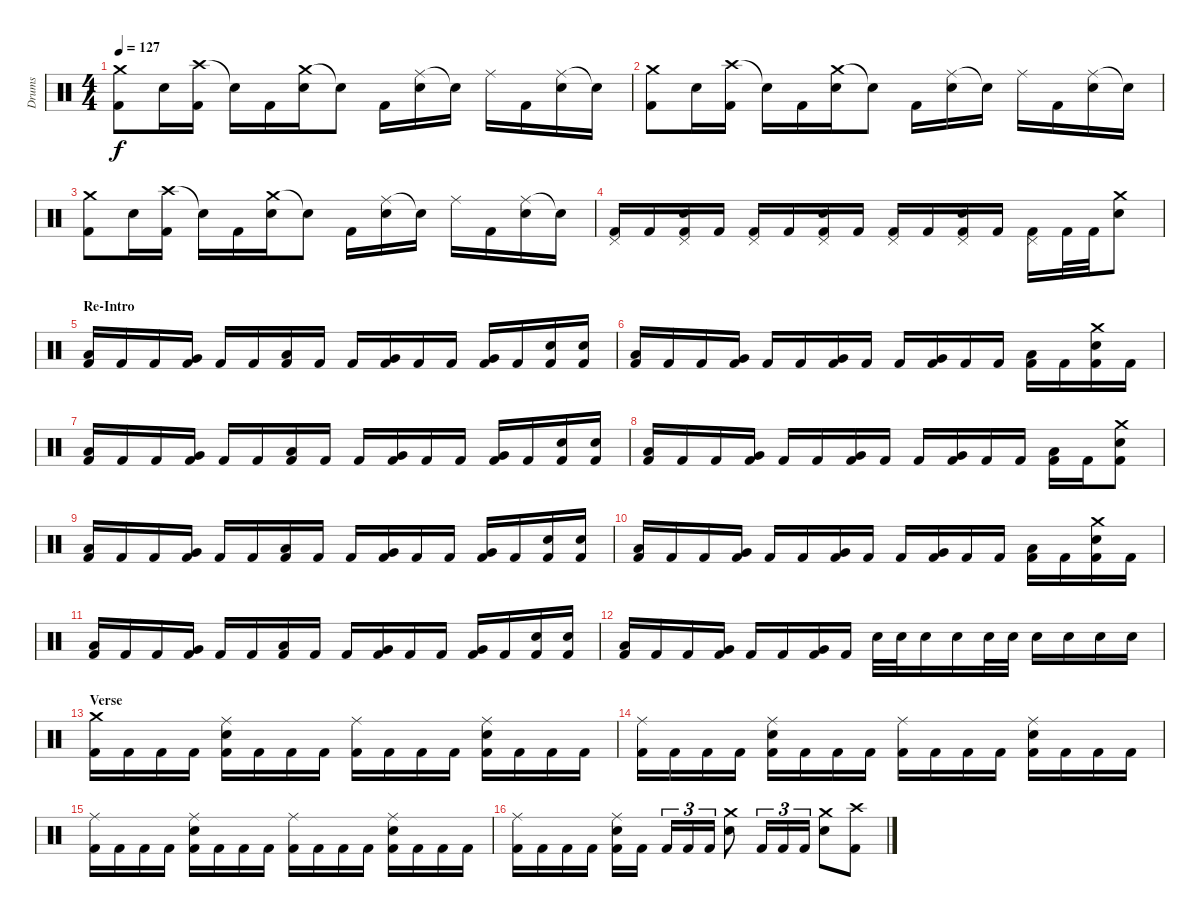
\track ("Drums" "Drums") {instrument percussion}
\staff {score}
\articulation defaults
\ts (4 4)
\tempo 127
\clef neutral
\ks c
("Crash medium (hit)" "Kick (hit) 2").8{dy f} "Electric Snare (hit)".16 ("Crash high (hit)" "Kick (hit) 2").16 "Snare (hit)"{t}.16 "Kick (hit) 2".16 ("Crash medium (hit)" "Electric Snare (hit)").16 "Snare (hit)"{t}.8 "Kick (hit) 2".16 ("Ride (middle)" "Electric Snare (hit)").16 "Snare (hit)"{t}.16 "Ride (middle)".16 "Kick (hit) 2".16 ("Ride (middle)" "Electric Snare (hit)").16 "Snare (hit)"{t}.16 |
("Crash medium (hit)" "Kick (hit) 2").8 "Electric Snare (hit)".16 ("Crash high (hit)" "Kick (hit) 2").16 "Snare (hit)"{t}.16 "Kick (hit) 2".16 ("Crash medium (hit)" "Electric Snare (hit)").16 "Snare (hit)"{t}.8 "Kick (hit) 2".16 ("Ride (middle)" "Electric Snare (hit)").16 "Snare (hit)"{t}.16 "Ride (middle)".16 "Kick (hit) 2".16 ("Ride (middle)" "Electric Snare (hit)").16 "Snare (hit)"{t}.16 |
("Crash medium (hit)" "Kick (hit) 2").8 "Electric Snare (hit)".16 ("Crash high (hit)" "Kick (hit) 2").16 "Snare (hit)"{t}.16 "Kick (hit) 2".16 ("Crash medium (hit)" "Electric Snare (hit)").16 "Snare (hit)"{t}.8 "Kick (hit) 2".16 ("Ride (middle)" "Electric Snare (hit)").16 "Snare (hit)"{t}.16 "Ride (middle)".16 "Kick (hit) 2".16 ("Ride (middle)" "Electric Snare (hit)").16 "Snare (hit)"{t}.16 |
("Pedal Hi-Hat (hit)" "Kick (hit) 2").16 "Kick (hit) 2".16 ("Pedal Hi-Hat (hit)" "Electric Snare (hit)" "Kick (hit) 2").16 "Kick (hit) 2".16 ("Pedal Hi-Hat (hit)" "Kick (hit) 2").16 "Kick (hit) 2".16 ("Pedal Hi-Hat (hit)" "Electric Snare (hit)" "Kick (hit) 2").16 "Kick (hit) 2".16 ("Pedal Hi-Hat (hit)" "Kick (hit) 2").16 "Kick (hit) 2".16 ("Pedal Hi-Hat (hit)" "Electric Snare (hit)" "Kick (hit) 2").16 "Kick (hit) 2".16 ("Pedal Hi-Hat (hit)" "Kick (hit) 2").16 "Kick (hit) 2".32 "Kick (hit) 2".32 ("Crash medium (hit)" "Electric Snare (hit)").8 |
\section ("" "Re-Intro")
("Low Tom (hit)" "Kick (hit) 2").16 "Kick (hit) 2".16 "Kick (hit) 2".16 ("Very Low Tom (hit)" "Kick (hit) 2").16 "Kick (hit) 2".16 "Kick (hit) 2".16 ("Low Tom (hit)" "Kick (hit) 2").16 "Kick (hit) 2".16 "Kick (hit) 2".16 ("Very Low Tom (hit)" "Kick (hit) 2").16 "Kick (hit) 2".16 "Kick (hit) 2".16 ("Very Low Tom (hit)" "Kick (hit) 2").16 "Kick (hit) 2".16 ("Electric Snare (hit)" "Kick (hit) 2").16 ("Electric Snare (hit)" "Kick (hit) 2").16 |
("Low Tom (hit)" "Kick (hit) 2").16 "Kick (hit) 2".16 "Kick (hit) 2".16 ("Very Low Tom (hit)" "Kick (hit) 2").16 "Kick (hit) 2".16 "Kick (hit) 2".16 ("Very Low Tom (hit)" "Kick (hit) 2").16 "Kick (hit) 2".16 "Kick (hit) 2".16 ("Very Low Tom (hit)" "Kick (hit) 2").16 "Kick (hit) 2".16 "Kick (hit) 2".16 ("Low Tom (hit)" "Kick (hit) 2").16 "Kick (hit) 2".16 ("Crash medium (hit)" "Electric Snare (hit)" "Kick (hit) 2").16 "Kick (hit) 2".16 |
("Low Tom (hit)" "Kick (hit) 2").16 "Kick (hit) 2".16 "Kick (hit) 2".16 ("Very Low Tom (hit)" "Kick (hit) 2").16 "Kick (hit) 2".16 "Kick (hit) 2".16 ("Low Tom (hit)" "Kick (hit) 2").16 "Kick (hit) 2".16 "Kick (hit) 2".16 ("Very Low Tom (hit)" "Kick (hit) 2").16 "Kick (hit) 2".16 "Kick (hit) 2".16 ("Very Low Tom (hit)" "Kick (hit) 2").16 "Kick (hit) 2".16 ("Electric Snare (hit)" "Kick (hit) 2").16 ("Electric Snare (hit)" "Kick (hit) 2").16 |
("Low Tom (hit)" "Kick (hit) 2").16 "Kick (hit) 2".16 "Kick (hit) 2".16 ("Very Low Tom (hit)" "Kick (hit) 2").16 "Kick (hit) 2".16 "Kick (hit) 2".16 ("Very Low Tom (hit)" "Kick (hit) 2").16 "Kick (hit) 2".16 "Kick (hit) 2".16 ("Very Low Tom (hit)" "Kick (hit) 2").16 "Kick (hit) 2".16 "Kick (hit) 2".16 ("Low Tom (hit)" "Kick (hit) 2").16 "Kick (hit) 2".16 ("Crash medium (hit)" "Electric Snare (hit)" "Kick (hit) 2").8 |
("Low Tom (hit)" "Kick (hit) 2").16 "Kick (hit) 2".16 "Kick (hit) 2".16 ("Very Low Tom (hit)" "Kick (hit) 2").16 "Kick (hit) 2".16 "Kick (hit) 2".16 ("Low Tom (hit)" "Kick (hit) 2").16 "Kick (hit) 2".16 "Kick (hit) 2".16 ("Very Low Tom (hit)" "Kick (hit) 2").16 "Kick (hit) 2".16 "Kick (hit) 2".16 ("Very Low Tom (hit)" "Kick (hit) 2").16 "Kick (hit) 2".16 ("Electric Snare (hit)" "Kick (hit) 2").16 ("Electric Snare (hit)" "Kick (hit) 2").16 |
("Low Tom (hit)" "Kick (hit) 2").16 "Kick (hit) 2".16 "Kick (hit) 2".16 ("Very Low Tom (hit)" "Kick (hit) 2").16 "Kick (hit) 2".16 "Kick (hit) 2".16 ("Very Low Tom (hit)" "Kick (hit) 2").16 "Kick (hit) 2".16 "Kick (hit) 2".16 ("Very Low Tom (hit)" "Kick (hit) 2").16 "Kick (hit) 2".16 "Kick (hit) 2".16 ("Low Tom (hit)" "Kick (hit) 2").16 "Kick (hit) 2".16 ("Crash medium (hit)" "Electric Snare (hit)" "Kick (hit) 2").16 "Kick (hit) 2".16 |
("Low Tom (hit)" "Kick (hit) 2").16 "Kick (hit) 2".16 "Kick (hit) 2".16 ("Very Low Tom (hit)" "Kick (hit) 2").16 "Kick (hit) 2".16 "Kick (hit) 2".16 ("Low Tom (hit)" "Kick (hit) 2").16 "Kick (hit) 2".16 "Kick (hit) 2".16 ("Very Low Tom (hit)" "Kick (hit) 2").16 "Kick (hit) 2".16 "Kick (hit) 2".16 ("Very Low Tom (hit)" "Kick (hit) 2").16 "Kick (hit) 2".16 ("Electric Snare (hit)" "Kick (hit) 2").16 ("Electric Snare (hit)" "Kick (hit) 2").16 |
("Low Tom (hit)" "Kick (hit) 2").16 "Kick (hit) 2".16 "Kick (hit) 2".16 ("Very Low Tom (hit)" "Kick (hit) 2").16 "Kick (hit) 2".16 "Kick (hit) 2".16 ("Very Low Tom (hit)" "Kick (hit) 2").16 "Kick (hit) 2".16 "Electric Snare (hit)".32 "Electric Snare (hit)".32 "Electric Snare (hit)".16 "Electric Snare (hit)".16 "Electric Snare (hit)".32 "Electric Snare (hit)".32 "Electric Snare (hit)".16 "Electric Snare (hit)".16 "Electric Snare (hit)".16 "Electric Snare (hit)".16 |
\section ("" "Verse")
("Crash medium (hit)" "Kick (hit) 2").16 "Kick (hit) 2".16 "Kick (hit) 2".16 "Kick (hit) 2".16 ("Ride (middle)" "Electric Snare (hit)" "Kick (hit) 2").16 "Kick (hit) 2".16 "Kick (hit) 2".16 "Kick (hit) 2".16 ("Ride (middle)" "Kick (hit) 2").16 "Kick (hit) 2".16 "Kick (hit) 2".16 "Kick (hit) 2".16 ("Ride (middle)" "Electric Snare (hit)" "Kick (hit) 2").16 "Kick (hit) 2".16 "Kick (hit) 2".16 "Kick (hit) 2".16 |
("Ride (middle)" "Kick (hit) 2").16 "Kick (hit) 2".16 "Kick (hit) 2".16 "Kick (hit) 2".16 ("Ride (middle)" "Electric Snare (hit)" "Kick (hit) 2").16 "Kick (hit) 2".16 "Kick (hit) 2".16 "Kick (hit) 2".16 ("Ride (middle)" "Kick (hit) 2").16 "Kick (hit) 2".16 "Kick (hit) 2".16 "Kick (hit) 2".16 ("Ride (middle)" "Electric Snare (hit)" "Kick (hit) 2").16 "Kick (hit) 2".16 "Kick (hit) 2".16 "Kick (hit) 2".16 |
("Ride (middle)" "Kick (hit) 2").16 "Kick (hit) 2".16 "Kick (hit) 2".16 "Kick (hit) 2".16 ("Ride (middle)" "Electric Snare (hit)" "Kick (hit) 2").16 "Kick (hit) 2".16 "Kick (hit) 2".16 "Kick (hit) 2".16 ("Ride (middle)" "Kick (hit) 2").16 "Kick (hit) 2".16 "Kick (hit) 2".16 "Kick (hit) 2".16 ("Ride (middle)" "Electric Snare (hit)" "Kick (hit) 2").16 "Kick (hit) 2".16 "Kick (hit) 2".16 "Kick (hit) 2".16 |
("Ride (middle)" "Kick (hit) 2").16 "Kick (hit) 2".16 "Kick (hit) 2".16 "Kick (hit) 2".16 ("Ride (middle)" "Electric Snare (hit)" "Kick (hit) 2").16 "Kick (hit) 2".16 "Kick (hit) 2".16{tu (3 2)} "Kick (hit) 2".16{tu (3 2)} "Kick (hit) 2".16{tu (3 2)} ("Crash medium (hit)" "Electric Snare (hit)").8 "Kick (hit) 2".16{tu (3 2)} "Kick (hit) 2".16{tu (3 2)} "Kick (hit) 2".16{tu (3 2)} ("Crash medium (hit)" "Electric Snare (hit)").8 ("Crash high (hit)" "Kick (hit) 2").8
